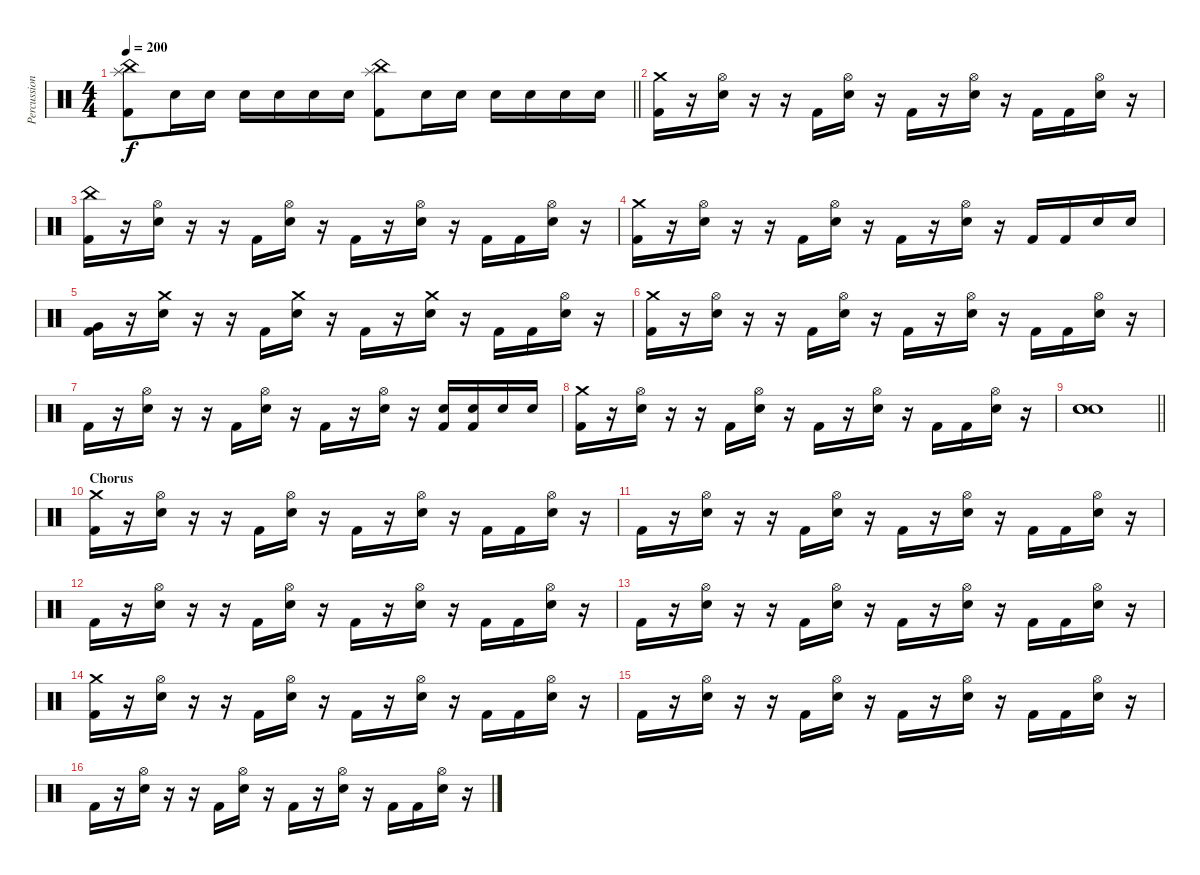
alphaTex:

\track ("Percussion" "Percussion") {instrument percussion}
\staff {score}
\articulation defaults
\ts (4 4)
\tempo 200
\clef neutral
\barLineRight lightlight
\ks c
("Kick (hit) 2" "China (hit)" "Splash (hit)").8{dy f} "Electric Snare (hit)".16 "Electric Snare (hit)".16 "Electric Snare (hit)".16 "Electric Snare (hit)".16 "Electric Snare (hit)".16 "Electric Snare (hit)".16 ("Kick (hit) 2" "China (hit)" "Splash (hit)").8 "Electric Snare (hit)".16 "Electric Snare (hit)".16 "Electric Snare (hit)".16 "Electric Snare (hit)".16 "Electric Snare (hit)".16 "Electric Snare (hit)".16 |
("Kick (hit) 2" "Crash medium (hit)").16 r.16 ("Hi-Hat (open)" "Electric Snare (hit)").16 r.16 r.16 "Kick (hit) 2".16 ("Hi-Hat (open)" "Electric Snare (hit)").16 r.16 "Kick (hit) 2".16 r.16 ("Hi-Hat (open)" "Electric Snare (hit)").16 r.16 "Kick (hit) 2".16 "Kick (hit) 2".16 ("Hi-Hat (open)" "Electric Snare (hit)").16 r.16 |
("Kick (hit) 2" "China (hit)").16 r.16 ("Hi-Hat (open)" "Electric Snare (hit)").16 r.16 r.16 "Kick (hit) 2".16 ("Hi-Hat (open)" "Electric Snare (hit)").16 r.16 "Kick (hit) 2".16 r.16 ("Hi-Hat (open)" "Electric Snare (hit)").16 r.16 "Kick (hit) 2".16 "Kick (hit) 2".16 ("Hi-Hat (open)" "Electric Snare (hit)").16 r.16 |
("Kick (hit) 2" "Crash medium (hit)").16 r.16 ("Hi-Hat (open)" "Electric Snare (hit)").16 r.16 r.16 "Kick (hit) 2".16 ("Hi-Hat (open)" "Electric Snare (hit)").16 r.16 "Kick (hit) 2".16 r.16 ("Hi-Hat (open)" "Electric Snare (hit)").16 r.16 "Kick (hit) 2".16 "Kick (hit) 2".16 "Electric Snare (hit)".16 "Electric Snare (hit)".16 |
("Kick (hit) 2" "Very Low Tom (hit)").16 r.16 ("Crash medium (hit)" "Electric Snare (hit)").16 r.16 r.16 "Kick (hit) 2".16 ("Crash medium (hit)" "Electric Snare (hit)").16 r.16 "Kick (hit) 2".16 r.16 ("Crash medium (hit)" "Electric Snare (hit)").16 r.16 "Kick (hit) 2".16 "Kick (hit) 2".16 ("Hi-Hat (open)" "Electric Snare (hit)").16 r.16 |
("Crash medium (hit)" "Kick (hit) 2").16 r.16 ("Hi-Hat (open)" "Electric Snare (hit)").16 r.16 r.16 "Kick (hit) 2".16 ("Hi-Hat (open)" "Electric Snare (hit)").16 r.16 "Kick (hit) 2".16 r.16 ("Hi-Hat (open)" "Electric Snare (hit)").16 r.16 "Kick (hit) 2".16 "Kick (hit) 2".16 ("Hi-Hat (open)" "Electric Snare (hit)").16 r.16 |
"Kick (hit) 2".16 r.16 ("Hi-Hat (open)" "Electric Snare (hit)").16 r.16 r.16 "Kick (hit) 2".16 ("Hi-Hat (open)" "Electric Snare (hit)").16 r.16 "Kick (hit) 2".16 r.16 ("Hi-Hat (open)" "Electric Snare (hit)").16 r.16 ("Electric Snare (hit)" "Kick (hit) 2").16 ("Electric Snare (hit)" "Kick (hit) 2").16 "Electric Snare (hit)".16 "Electric Snare (hit)".16 |
("Crash medium (hit)" "Kick (hit) 2").16 r.16 ("Hi-Hat (open)" "Electric Snare (hit)").16 r.16 r.16 "Kick (hit) 2".16 ("Hi-Hat (open)" "Electric Snare (hit)").16 r.16 "Kick (hit) 2".16 r.16 ("Hi-Hat (open)" "Electric Snare (hit)").16 r.16 "Kick (hit) 2".16 "Kick (hit) 2".16 ("Hi-Hat (open)" "Electric Snare (hit)").16 r.16 |
\barLineRight lightlight
("Electric Snare (hit)" "Electric Snare (hit)" "Snare (hit)").1{bd 30} |
\section ("" "Chorus")
("Crash medium (hit)" "Kick (hit) 2").16 r.16 ("Hi-Hat (open)" "Electric Snare (hit)").16 r.16 r.16 "Kick (hit) 2".16 ("Hi-Hat (open)" "Electric Snare (hit)").16 r.16 "Kick (hit) 2".16 r.16 ("Hi-Hat (open)" "Electric Snare (hit)").16 r.16 "Kick (hit) 2".16 "Kick (hit) 2".16 ("Hi-Hat (open)" "Electric Snare (hit)").16 r.16 |
"Kick (hit) 2".16 r.16 ("Hi-Hat (open)" "Electric Snare (hit)").16 r.16 r.16 "Kick (hit) 2".16 ("Hi-Hat (open)" "Electric Snare (hit)").16 r.16 "Kick (hit) 2".16 r.16 ("Hi-Hat (open)" "Electric Snare (hit)").16 r.16 "Kick (hit) 2".16 "Kick (hit) 2".16 ("Hi-Hat (open)" "Electric Snare (hit)").16 r.16 |
"Kick (hit) 2".16 r.16 ("Hi-Hat (open)" "Electric Snare (hit)").16 r.16 r.16 "Kick (hit) 2".16 ("Hi-Hat (open)" "Electric Snare (hit)").16 r.16 "Kick (hit) 2".16 r.16 ("Hi-Hat (open)" "Electric Snare (hit)").16 r.16 "Kick (hit) 2".16 "Kick (hit) 2".16 ("Hi-Hat (open)" "Electric Snare (hit)").16 r.16 |
"Kick (hit) 2".16 r.16 ("Hi-Hat (open)" "Electric Snare (hit)").16 r.16 r.16 "Kick (hit) 2".16 ("Hi-Hat (open)" "Electric Snare (hit)").16 r.16 "Kick (hit) 2".16 r.16 ("Hi-Hat (open)" "Electric Snare (hit)").16 r.16 "Kick (hit) 2".16 "Kick (hit) 2".16 ("Hi-Hat (open)" "Electric Snare (hit)").16 r.16 |
("Crash medium (hit)" "Kick (hit) 2").16 r.16 ("Hi-Hat (open)" "Electric Snare (hit)").16 r.16 r.16 "Kick (hit) 2".16 ("Hi-Hat (open)" "Electric Snare (hit)").16 r.16 "Kick (hit) 2".16 r.16 ("Hi-Hat (open)" "Electric Snare (hit)").16 r.16 "Kick (hit) 2".16 "Kick (hit) 2".16 ("Hi-Hat (open)" "Electric Snare (hit)").16 r.16 |
"Kick (hit) 2".16 r.16 ("Hi-Hat (open)" "Electric Snare (hit)").16 r.16 r.16 "Kick (hit) 2".16 ("Hi-Hat (open)" "Electric Snare (hit)").16 r.16 "Kick (hit) 2".16 r.16 ("Hi-Hat (open)" "Electric Snare (hit)").16 r.16 "Kick (hit) 2".16 "Kick (hit) 2".16 ("Hi-Hat (open)" "Electric Snare (hit)").16 r.16 |
"Kick (hit) 2".16 r.16 ("Hi-Hat (open)" "Electric Snare (hit)").16 r.16 r.16 "Kick (hit) 2".16 ("Hi-Hat (open)" "Electric Snare (hit)").16 r.16 "Kick (hit) 2".16 r.16 ("Hi-Hat (open)" "Electric Snare (hit)").16 r.16 "Kick (hit) 2".16 "Kick (hit) 2".16 ("Hi-Hat (open)" "Electric Snare (hit)").16 r.16
